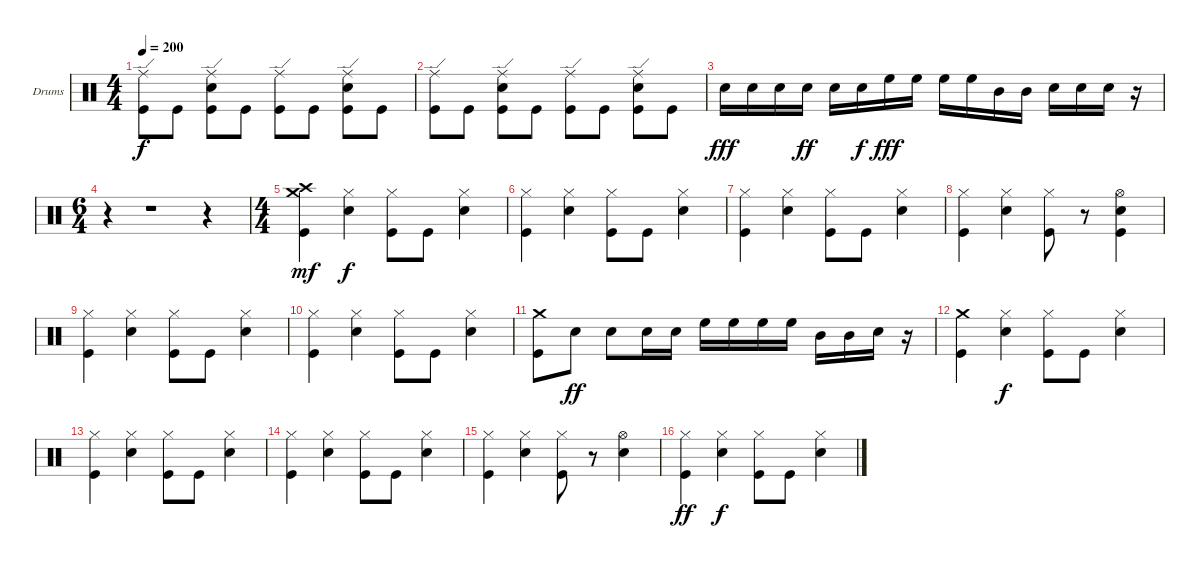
\bracketExtendMode groupsimilarinstruments
\firstSystemTrackNameOrientation horizontal
\otherSystemsTrackNameOrientation horizontal
\track ("Drumkit" "Drums") {instrument percussion}
\staff {score}
\articulation defaults
\ts (4 4)
\tempo 200
\clef neutral
\ks c
("Ride (edge)" "Kick (hit)").8{dy f} "Kick (hit)".8 ("Ride (edge)" "Snare (hit) 2" "Kick (hit)").8 "Kick (hit)".8 ("Ride (edge)" "Kick (hit)").8 "Kick (hit)".8 ("Ride (edge)" "Snare (hit) 2" "Kick (hit)").8 "Kick (hit)".8 |
("Ride (edge)" "Kick (hit)").8 "Kick (hit)".8 ("Ride (edge)" "Snare (hit) 2" "Kick (hit)").8 "Kick (hit)".8 ("Ride (edge)" "Kick (hit)").8 "Kick (hit)".8 ("Ride (edge)" "Snare (hit) 2" "Kick (hit)").8 "Kick (hit)".8 |
"Snare (hit) 2".16{dy fff} "Snare (hit) 2".16 "Snare (hit) 2".16 "Snare (hit) 2".16{dy ff} "Snare (hit) 2".16 "Snare (hit) 2".16{dy f} "High Floor Tom (hit)".16{dy fff} "High Floor Tom (hit)".16 "High Floor Tom (hit)".16 "High Floor Tom (hit)".16 "Mid Tom (hit)".16 "Mid Tom (hit)".16 "Snare (hit) 2".16 "Snare (hit) 2".16 "Snare (hit) 2".16 r.16 |
\ts (6 4)
\beaming (8 2 2 2 6)
r.4 r.1 r.4 |
\ts (4 4)
\beaming (8 2 2 2 2)
("Crash medium (hit)" "Crash high (hit)" "Kick (hit)").4{dy mf} ("Hi-Hat (closed)" "Snare (hit) 2").4{dy f} ("Hi-Hat (closed)" "Kick (hit)").8 "Kick (hit)".8 ("Hi-Hat (closed)" "Snare (hit) 2").4 |
("Hi-Hat (closed)" "Kick (hit)").4 ("Hi-Hat (closed)" "Snare (hit) 2").4 ("Hi-Hat (closed)" "Kick (hit)").8 "Kick (hit)".8 ("Hi-Hat (closed)" "Snare (hit) 2").4 |
("Hi-Hat (closed)" "Kick (hit)").4 ("Hi-Hat (closed)" "Snare (hit) 2").4 ("Hi-Hat (closed)" "Kick (hit)").8 "Kick (hit)".8 ("Hi-Hat (closed)" "Snare (hit) 2").4 |
("Hi-Hat (closed)" "Kick (hit)").4 ("Hi-Hat (closed)" "Snare (hit) 2").4 ("Hi-Hat (closed)" "Kick (hit)").8 r.8 ("Hi-Hat (open)" "Snare (hit) 2" "Kick (hit)").4 |
("Hi-Hat (closed)" "Kick (hit)").4 ("Hi-Hat (closed)" "Snare (hit) 2").4 ("Hi-Hat (closed)" "Kick (hit)").8 "Kick (hit)".8 ("Hi-Hat (closed)" "Snare (hit) 2").4 |
("Hi-Hat (closed)" "Kick (hit)").4 ("Hi-Hat (closed)" "Snare (hit) 2").4 ("Hi-Hat (closed)" "Kick (hit)").8 "Kick (hit)".8 ("Hi-Hat (closed)" "Snare (hit) 2").4 |
("Crash medium (hit)" "Kick (hit)").8 "Snare (hit) 2".8{dy ff} "Snare (hit) 2".8 "Snare (hit) 2".16 "Snare (hit) 2".16 "High Floor Tom (hit)".16 "High Floor Tom (hit)".16 "High Floor Tom (hit)".16 "High Floor Tom (hit)".16 "Mid Tom (hit)".16 "Mid Tom (hit)".16 "Snare (hit) 2".16 r.16 |
("Crash medium (hit)" "Kick (hit)").4 ("Hi-Hat (closed)" "Snare (hit) 2").4{dy f} ("Hi-Hat (closed)" "Kick (hit)").8 "Kick (hit)".8 ("Hi-Hat (closed)" "Snare (hit) 2").4 |
("Hi-Hat (closed)" "Kick (hit)").4 ("Hi-Hat (closed)" "Snare (hit) 2").4 ("Hi-Hat (closed)" "Kick (hit)").8 "Kick (hit)".8 ("Hi-Hat (closed)" "Snare (hit) 2").4 |
("Hi-Hat (closed)" "Kick (hit)").4 ("Hi-Hat (closed)" "Snare (hit) 2").4 ("Hi-Hat (closed)" "Kick (hit)").8 "Kick (hit)".8 ("Hi-Hat (closed)" "Snare (hit) 2").4 |
("Hi-Hat (closed)" "Kick (hit)").4 ("Hi-Hat (closed)" "Snare (hit) 2").4 ("Hi-Hat (closed)" "Kick (hit)").8 r.8 ("Hi-Hat (open)" "Snare (hit) 2").4 |
("Hi-Hat (closed)" "Kick (hit)").4{dy ff} ("Hi-Hat (closed)" "Snare (hit) 2").4{dy f} ("Hi-Hat (closed)" "Kick (hit)").8 "Kick (hit)".8 ("Hi-Hat (closed)" "Snare (hit) 2").4
